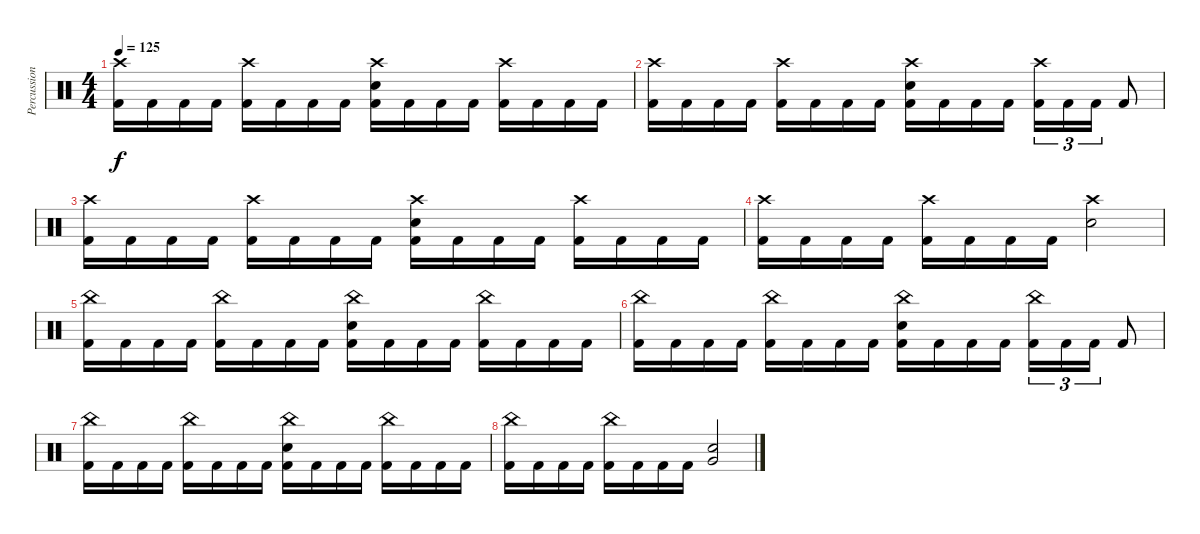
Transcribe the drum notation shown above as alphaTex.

\track ("Percussion" "Percussion") {instrument percussion}
\staff {score}
\articulation defaults
\ts (4 4)
\tempo 125
\clef neutral
\ks c
("Crash high (hit)" "Kick (hit) 2").16{dy f} "Kick (hit) 2".16 "Kick (hit) 2".16 "Kick (hit) 2".16 ("Crash high (hit)" "Kick (hit) 2").16 "Kick (hit) 2".16 "Kick (hit) 2".16 "Kick (hit) 2".16 ("Crash high (hit)" "Electric Snare (hit)" "Kick (hit) 2").16 "Kick (hit) 2".16 "Kick (hit) 2".16 "Kick (hit) 2".16 ("Crash high (hit)" "Kick (hit) 2").16 "Kick (hit) 2".16 "Kick (hit) 2".16 "Kick (hit) 2".16 |
("Crash high (hit)" "Kick (hit) 2").16 "Kick (hit) 2".16 "Kick (hit) 2".16 "Kick (hit) 2".16 ("Crash high (hit)" "Kick (hit) 2").16 "Kick (hit) 2".16 "Kick (hit) 2".16 "Kick (hit) 2".16 ("Crash high (hit)" "Electric Snare (hit)" "Kick (hit) 2").16 "Kick (hit) 2".16 "Kick (hit) 2".16 "Kick (hit) 2".16 ("Crash high (hit)" "Kick (hit) 2").16{tu (3 2)} "Kick (hit) 2".16{tu (3 2)} "Kick (hit) 2".16{tu (3 2)} "Kick (hit) 2".8 |
("Crash high (hit)" "Kick (hit) 2").16 "Kick (hit) 2".16 "Kick (hit) 2".16 "Kick (hit) 2".16 ("Crash high (hit)" "Kick (hit) 2").16 "Kick (hit) 2".16 "Kick (hit) 2".16 "Kick (hit) 2".16 ("Crash high (hit)" "Electric Snare (hit)" "Kick (hit) 2").16 "Kick (hit) 2".16 "Kick (hit) 2".16 "Kick (hit) 2".16 ("Crash high (hit)" "Kick (hit) 2").16 "Kick (hit) 2".16 "Kick (hit) 2".16 "Kick (hit) 2".16 |
("Crash high (hit)" "Kick (hit) 2").16 "Kick (hit) 2".16 "Kick (hit) 2".16 "Kick (hit) 2".16 ("Crash high (hit)" "Kick (hit) 2").16 "Kick (hit) 2".16 "Kick (hit) 2".16 "Kick (hit) 2".16 ("Crash high (hit)" "Electric Snare (hit)").2 |
("China (hit)" "Kick (hit) 2").16 "Kick (hit) 2".16 "Kick (hit) 2".16 "Kick (hit) 2".16 ("China (hit)" "Kick (hit) 2").16 "Kick (hit) 2".16 "Kick (hit) 2".16 "Kick (hit) 2".16 ("China (hit)" "Electric Snare (hit)" "Kick (hit) 2").16 "Kick (hit) 2".16 "Kick (hit) 2".16 "Kick (hit) 2".16 ("China (hit)" "Kick (hit) 2").16 "Kick (hit) 2".16 "Kick (hit) 2".16 "Kick (hit) 2".16 |
("China (hit)" "Kick (hit) 2").16 "Kick (hit) 2".16 "Kick (hit) 2".16 "Kick (hit) 2".16 ("China (hit)" "Kick (hit) 2").16 "Kick (hit) 2".16 "Kick (hit) 2".16 "Kick (hit) 2".16 ("China (hit)" "Electric Snare (hit)" "Kick (hit) 2").16 "Kick (hit) 2".16 "Kick (hit) 2".16 "Kick (hit) 2".16 ("China (hit)" "Kick (hit) 2").16{tu (3 2)} "Kick (hit) 2".16{tu (3 2)} "Kick (hit) 2".16{tu (3 2)} "Kick (hit) 2".8 |
("China (hit)" "Kick (hit) 2").16 "Kick (hit) 2".16 "Kick (hit) 2".16 "Kick (hit) 2".16 ("China (hit)" "Kick (hit) 2").16 "Kick (hit) 2".16 "Kick (hit) 2".16 "Kick (hit) 2".16 ("China (hit)" "Electric Snare (hit)" "Kick (hit) 2").16 "Kick (hit) 2".16 "Kick (hit) 2".16 "Kick (hit) 2".16 ("China (hit)" "Kick (hit) 2").16 "Kick (hit) 2".16 "Kick (hit) 2".16 "Kick (hit) 2".16 |
("China (hit)" "Kick (hit) 2").16 "Kick (hit) 2".16 "Kick (hit) 2".16 "Kick (hit) 2".16 ("China (hit)" "Kick (hit) 2").16 "Kick (hit) 2".16 "Kick (hit) 2".16 "Kick (hit) 2".16 ("Electric Snare (hit)" "Very Low Tom (hit)").2
